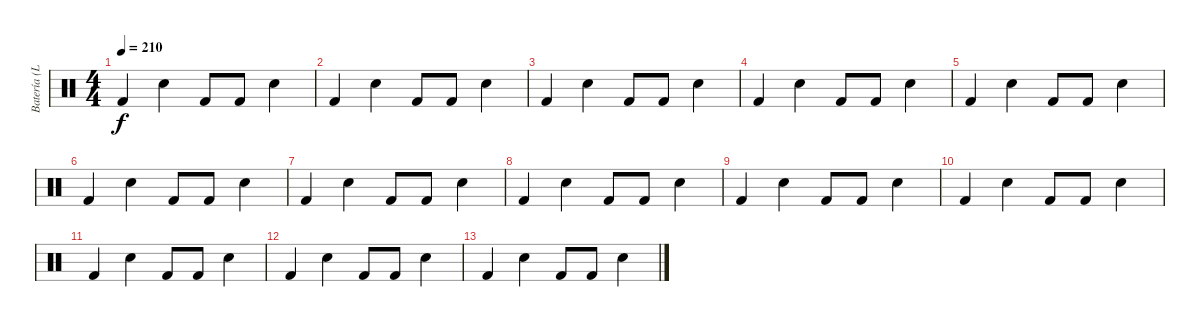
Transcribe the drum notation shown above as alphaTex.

\track ("Batería (Leo)" "Batería (L") {instrument percussion}
\staff {score}
\articulation defaults
\ts (4 4)
\tempo 210
\clef neutral
\ks c "Kick (hit) 2".4{dy f} "Snare (hit) 2".4 "Kick (hit) 2".8 "Kick (hit) 2".8 "Snare (hit) 2".4
|
"Kick (hit) 2".4 "Snare (hit) 2".4 "Kick (hit) 2".8 "Kick (hit) 2".8 "Snare (hit) 2".4 |
"Kick (hit) 2".4 "Snare (hit) 2".4 "Kick (hit) 2".8 "Kick (hit) 2".8 "Snare (hit) 2".4 |
"Kick (hit) 2".4 "Snare (hit) 2".4 "Kick (hit) 2".8 "Kick (hit) 2".8 "Snare (hit) 2".4 |
"Kick (hit) 2".4 "Snare (hit) 2".4 "Kick (hit) 2".8 "Kick (hit) 2".8 "Snare (hit) 2".4 |
"Kick (hit) 2".4 "Snare (hit) 2".4 "Kick (hit) 2".8 "Kick (hit) 2".8 "Snare (hit) 2".4 |
"Kick (hit) 2".4 "Snare (hit) 2".4 "Kick (hit) 2".8 "Kick (hit) 2".8 "Snare (hit) 2".4 |
"Kick (hit) 2".4 "Snare (hit) 2".4 "Kick (hit) 2".8 "Kick (hit) 2".8 "Snare (hit) 2".4 |
"Kick (hit) 2".4 "Snare (hit) 2".4 "Kick (hit) 2".8 "Kick (hit) 2".8 "Snare (hit) 2".4 |
"Kick (hit) 2".4 "Snare (hit) 2".4 "Kick (hit) 2".8 "Kick (hit) 2".8 "Snare (hit) 2".4 |
"Kick (hit) 2".4 "Snare (hit) 2".4 "Kick (hit) 2".8 "Kick (hit) 2".8 "Snare (hit) 2".4 |
"Kick (hit) 2".4 "Snare (hit) 2".4 "Kick (hit) 2".8 "Kick (hit) 2".8 "Snare (hit) 2".4 |
"Kick (hit) 2".4 "Snare (hit) 2".4 "Kick (hit) 2".8 "Kick (hit) 2".8 "Snare (hit) 2".4
